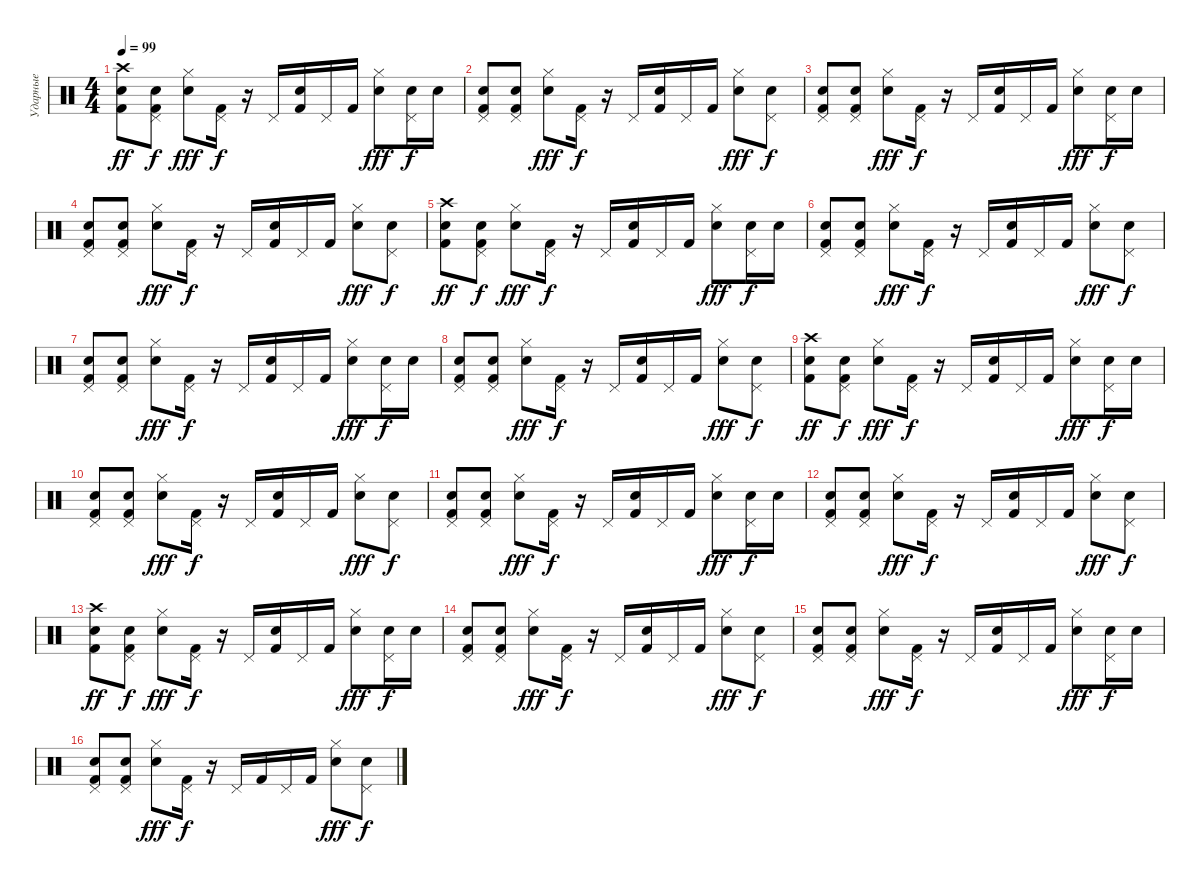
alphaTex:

\track ("Ударные" "Ударные") {instrument percussion}
\staff {score}
\articulation defaults
\ts (4 4)
\tempo 99
\clef neutral
\ks c
("Crash high (hit)" "Snare (hit) 2" "Kick (hit) 2").8{dy ff} ("Pedal Hi-Hat (hit)" "Snare (hit) 2" "Kick (hit) 2").8{dy f} ("Hi-Hat (closed)" "Snare (hit) 2").8{dy fff} ("Pedal Hi-Hat (hit)" "Kick (hit) 2").16{dy f} r.16 "Pedal Hi-Hat (hit)".16 ("Snare (hit) 2" "Kick (hit) 2").16 "Pedal Hi-Hat (hit)".16 "Kick (hit) 2".16 ("Hi-Hat (closed)" "Snare (hit) 2").8{dy fff} ("Pedal Hi-Hat (hit)" "Snare (hit) 2").16{dy f} "Snare (hit) 2".16 |
("Pedal Hi-Hat (hit)" "Snare (hit) 2" "Kick (hit) 2").8 ("Pedal Hi-Hat (hit)" "Snare (hit) 2" "Kick (hit) 2").8 ("Hi-Hat (closed)" "Snare (hit) 2").8{dy fff} ("Pedal Hi-Hat (hit)" "Kick (hit) 2").16{dy f} r.16 "Pedal Hi-Hat (hit)".16 ("Snare (hit) 2" "Kick (hit) 2").16 "Pedal Hi-Hat (hit)".16 "Kick (hit) 2".16 ("Hi-Hat (closed)" "Snare (hit) 2").8{dy fff} ("Pedal Hi-Hat (hit)" "Snare (hit) 2").8{dy f} |
("Pedal Hi-Hat (hit)" "Snare (hit) 2" "Kick (hit) 2").8 ("Pedal Hi-Hat (hit)" "Snare (hit) 2" "Kick (hit) 2").8 ("Hi-Hat (closed)" "Snare (hit) 2").8{dy fff} ("Pedal Hi-Hat (hit)" "Kick (hit) 2").16{dy f} r.16 "Pedal Hi-Hat (hit)".16 ("Snare (hit) 2" "Kick (hit) 2").16 "Pedal Hi-Hat (hit)".16 "Kick (hit) 2".16 ("Hi-Hat (closed)" "Snare (hit) 2").8{dy fff} ("Pedal Hi-Hat (hit)" "Snare (hit) 2").16{dy f} "Snare (hit) 2".16 |
("Pedal Hi-Hat (hit)" "Snare (hit) 2" "Kick (hit) 2").8 ("Pedal Hi-Hat (hit)" "Snare (hit) 2" "Kick (hit) 2").8 ("Hi-Hat (closed)" "Snare (hit) 2").8{dy fff} ("Pedal Hi-Hat (hit)" "Kick (hit) 2").16{dy f} r.16 "Pedal Hi-Hat (hit)".16 ("Snare (hit) 2" "Kick (hit) 2").16 "Pedal Hi-Hat (hit)".16 "Kick (hit) 2".16 ("Hi-Hat (closed)" "Snare (hit) 2").8{dy fff} ("Pedal Hi-Hat (hit)" "Snare (hit) 2").8{dy f} |
("Crash high (hit)" "Snare (hit) 2" "Kick (hit) 2").8{dy ff} ("Pedal Hi-Hat (hit)" "Snare (hit) 2" "Kick (hit) 2").8{dy f} ("Hi-Hat (closed)" "Snare (hit) 2").8{dy fff} ("Pedal Hi-Hat (hit)" "Kick (hit) 2").16{dy f} r.16 "Pedal Hi-Hat (hit)".16 ("Snare (hit) 2" "Kick (hit) 2").16 "Pedal Hi-Hat (hit)".16 "Kick (hit) 2".16 ("Hi-Hat (closed)" "Snare (hit) 2").8{dy fff} ("Pedal Hi-Hat (hit)" "Snare (hit) 2").16{dy f} "Snare (hit) 2".16 |
("Pedal Hi-Hat (hit)" "Snare (hit) 2" "Kick (hit) 2").8 ("Pedal Hi-Hat (hit)" "Snare (hit) 2" "Kick (hit) 2").8 ("Hi-Hat (closed)" "Snare (hit) 2").8{dy fff} ("Pedal Hi-Hat (hit)" "Kick (hit) 2").16{dy f} r.16 "Pedal Hi-Hat (hit)".16 ("Snare (hit) 2" "Kick (hit) 2").16 "Pedal Hi-Hat (hit)".16 "Kick (hit) 2".16 ("Hi-Hat (closed)" "Snare (hit) 2").8{dy fff} ("Pedal Hi-Hat (hit)" "Snare (hit) 2").8{dy f} |
("Pedal Hi-Hat (hit)" "Snare (hit) 2" "Kick (hit) 2").8 ("Pedal Hi-Hat (hit)" "Snare (hit) 2" "Kick (hit) 2").8 ("Hi-Hat (closed)" "Snare (hit) 2").8{dy fff} ("Pedal Hi-Hat (hit)" "Kick (hit) 2").16{dy f} r.16 "Pedal Hi-Hat (hit)".16 ("Snare (hit) 2" "Kick (hit) 2").16 "Pedal Hi-Hat (hit)".16 "Kick (hit) 2".16 ("Hi-Hat (closed)" "Snare (hit) 2").8{dy fff} ("Pedal Hi-Hat (hit)" "Snare (hit) 2").16{dy f} "Snare (hit) 2".16 |
("Pedal Hi-Hat (hit)" "Snare (hit) 2" "Kick (hit) 2").8 ("Pedal Hi-Hat (hit)" "Snare (hit) 2" "Kick (hit) 2").8 ("Hi-Hat (closed)" "Snare (hit) 2").8{dy fff} ("Pedal Hi-Hat (hit)" "Kick (hit) 2").16{dy f} r.16 "Pedal Hi-Hat (hit)".16 ("Snare (hit) 2" "Kick (hit) 2").16 "Pedal Hi-Hat (hit)".16 "Kick (hit) 2".16 ("Hi-Hat (closed)" "Snare (hit) 2").8{dy fff} ("Pedal Hi-Hat (hit)" "Snare (hit) 2").8{dy f} |
("Crash high (hit)" "Snare (hit) 2" "Kick (hit) 2").8{dy ff} ("Pedal Hi-Hat (hit)" "Snare (hit) 2" "Kick (hit) 2").8{dy f} ("Hi-Hat (closed)" "Snare (hit) 2").8{dy fff} ("Pedal Hi-Hat (hit)" "Kick (hit) 2").16{dy f} r.16 "Pedal Hi-Hat (hit)".16 ("Snare (hit) 2" "Kick (hit) 2").16 "Pedal Hi-Hat (hit)".16 "Kick (hit) 2".16 ("Hi-Hat (closed)" "Snare (hit) 2").8{dy fff} ("Pedal Hi-Hat (hit)" "Snare (hit) 2").16{dy f} "Snare (hit) 2".16 |
("Pedal Hi-Hat (hit)" "Snare (hit) 2" "Kick (hit) 2").8 ("Pedal Hi-Hat (hit)" "Snare (hit) 2" "Kick (hit) 2").8 ("Hi-Hat (closed)" "Snare (hit) 2").8{dy fff} ("Pedal Hi-Hat (hit)" "Kick (hit) 2").16{dy f} r.16 "Pedal Hi-Hat (hit)".16 ("Snare (hit) 2" "Kick (hit) 2").16 "Pedal Hi-Hat (hit)".16 "Kick (hit) 2".16 ("Hi-Hat (closed)" "Snare (hit) 2").8{dy fff} ("Pedal Hi-Hat (hit)" "Snare (hit) 2").8{dy f} |
("Pedal Hi-Hat (hit)" "Snare (hit) 2" "Kick (hit) 2").8 ("Pedal Hi-Hat (hit)" "Snare (hit) 2" "Kick (hit) 2").8 ("Hi-Hat (closed)" "Snare (hit) 2").8{dy fff} ("Pedal Hi-Hat (hit)" "Kick (hit) 2").16{dy f} r.16 "Pedal Hi-Hat (hit)".16 ("Snare (hit) 2" "Kick (hit) 2").16 "Pedal Hi-Hat (hit)".16 "Kick (hit) 2".16 ("Hi-Hat (closed)" "Snare (hit) 2").8{dy fff} ("Pedal Hi-Hat (hit)" "Snare (hit) 2").16{dy f} "Snare (hit) 2".16 |
("Pedal Hi-Hat (hit)" "Snare (hit) 2" "Kick (hit) 2").8 ("Pedal Hi-Hat (hit)" "Snare (hit) 2" "Kick (hit) 2").8 ("Hi-Hat (closed)" "Snare (hit) 2").8{dy fff} ("Pedal Hi-Hat (hit)" "Kick (hit) 2").16{dy f} r.16 "Pedal Hi-Hat (hit)".16 ("Snare (hit) 2" "Kick (hit) 2").16 "Pedal Hi-Hat (hit)".16 "Kick (hit) 2".16 ("Hi-Hat (closed)" "Snare (hit) 2").8{dy fff} ("Pedal Hi-Hat (hit)" "Snare (hit) 2").8{dy f} |
("Crash high (hit)" "Snare (hit) 2" "Kick (hit) 2").8{dy ff} ("Pedal Hi-Hat (hit)" "Snare (hit) 2" "Kick (hit) 2").8{dy f} ("Hi-Hat (closed)" "Snare (hit) 2").8{dy fff} ("Pedal Hi-Hat (hit)" "Kick (hit) 2").16{dy f} r.16 "Pedal Hi-Hat (hit)".16 ("Snare (hit) 2" "Kick (hit) 2").16 "Pedal Hi-Hat (hit)".16 "Kick (hit) 2".16 ("Hi-Hat (closed)" "Snare (hit) 2").8{dy fff} ("Pedal Hi-Hat (hit)" "Snare (hit) 2").16{dy f} "Snare (hit) 2".16 |
("Pedal Hi-Hat (hit)" "Snare (hit) 2" "Kick (hit) 2").8 ("Pedal Hi-Hat (hit)" "Snare (hit) 2" "Kick (hit) 2").8 ("Hi-Hat (closed)" "Snare (hit) 2").8{dy fff} ("Pedal Hi-Hat (hit)" "Kick (hit) 2").16{dy f} r.16 "Pedal Hi-Hat (hit)".16 ("Snare (hit) 2" "Kick (hit) 2").16 "Pedal Hi-Hat (hit)".16 "Kick (hit) 2".16 ("Hi-Hat (closed)" "Snare (hit) 2").8{dy fff} ("Pedal Hi-Hat (hit)" "Snare (hit) 2").8{dy f} |
("Pedal Hi-Hat (hit)" "Snare (hit) 2" "Kick (hit) 2").8 ("Pedal Hi-Hat (hit)" "Snare (hit) 2" "Kick (hit) 2").8 ("Hi-Hat (closed)" "Snare (hit) 2").8{dy fff} ("Pedal Hi-Hat (hit)" "Kick (hit) 2").16{dy f} r.16 "Pedal Hi-Hat (hit)".16 ("Snare (hit) 2" "Kick (hit) 2").16 "Pedal Hi-Hat (hit)".16 "Kick (hit) 2".16 ("Hi-Hat (closed)" "Snare (hit) 2").8{dy fff} ("Pedal Hi-Hat (hit)" "Snare (hit) 2").16{dy f} "Snare (hit) 2".16 |
("Pedal Hi-Hat (hit)" "Snare (hit) 2" "Kick (hit) 2").8 ("Pedal Hi-Hat (hit)" "Snare (hit) 2" "Kick (hit) 2").8 ("Hi-Hat (closed)" "Snare (hit) 2").8{dy fff} ("Pedal Hi-Hat (hit)" "Kick (hit) 2").16{dy f} r.16 "Pedal Hi-Hat (hit)".16 "Kick (hit) 2".16 "Pedal Hi-Hat (hit)".16 "Kick (hit) 2".16 ("Hi-Hat (closed)" "Snare (hit) 2").8{dy fff} ("Pedal Hi-Hat (hit)" "Snare (hit) 2").8{dy f}
